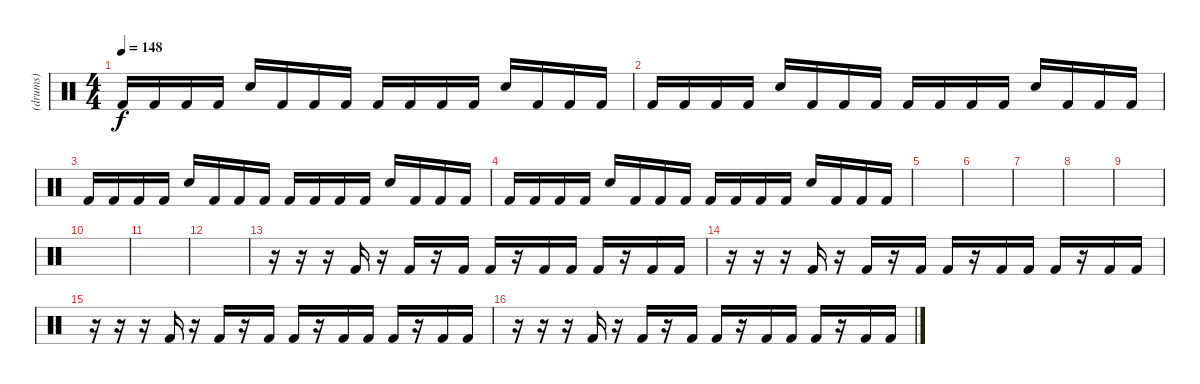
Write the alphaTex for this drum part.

\track ("(drums)" "(drums)") {instrument percussion}
\staff {score}
\articulation defaults
\ts (4 4)
\tempo 148
\clef neutral
\ks c "Kick (hit) 2".16{dy f} "Kick (hit) 2".16 "Kick (hit) 2".16 "Kick (hit) 2".16 "Snare (hit) 2".16 "Kick (hit) 2".16 "Kick (hit) 2".16 "Kick (hit) 2".16 "Kick (hit) 2".16 "Kick (hit) 2".16 "Kick (hit) 2".16 "Kick (hit) 2".16 "Snare (hit) 2".16 "Kick (hit) 2".16 "Kick (hit) 2".16 "Kick (hit) 2".16
|
"Kick (hit) 2".16 "Kick (hit) 2".16 "Kick (hit) 2".16 "Kick (hit) 2".16 "Snare (hit) 2".16 "Kick (hit) 2".16 "Kick (hit) 2".16 "Kick (hit) 2".16 "Kick (hit) 2".16 "Kick (hit) 2".16 "Kick (hit) 2".16 "Kick (hit) 2".16 "Snare (hit) 2".16 "Kick (hit) 2".16 "Kick (hit) 2".16 "Kick (hit) 2".16 |
"Kick (hit) 2".16 "Kick (hit) 2".16 "Kick (hit) 2".16 "Kick (hit) 2".16 "Snare (hit) 2".16 "Kick (hit) 2".16 "Kick (hit) 2".16 "Kick (hit) 2".16 "Kick (hit) 2".16 "Kick (hit) 2".16 "Kick (hit) 2".16 "Kick (hit) 2".16 "Snare (hit) 2".16 "Kick (hit) 2".16 "Kick (hit) 2".16 "Kick (hit) 2".16 |
"Kick (hit) 2".16 "Kick (hit) 2".16 "Kick (hit) 2".16 "Kick (hit) 2".16 "Snare (hit) 2".16 "Kick (hit) 2".16 "Kick (hit) 2".16 "Kick (hit) 2".16 "Kick (hit) 2".16 "Kick (hit) 2".16 "Kick (hit) 2".16 "Kick (hit) 2".16 "Snare (hit) 2".16 "Kick (hit) 2".16 "Kick (hit) 2".16 "Kick (hit) 2".16 |
|
|
|
|
|
|
|
|
r.16 r.16 r.16 "Kick (hit) 2".16 r.16 "Kick (hit) 2".16 r.16 "Kick (hit) 2".16 "Kick (hit) 2".16 r.16 "Kick (hit) 2".16 "Kick (hit) 2".16 "Kick (hit) 2".16 r.16 "Kick (hit) 2".16 "Kick (hit) 2".16 |
r.16 r.16 r.16 "Kick (hit) 2".16 r.16 "Kick (hit) 2".16 r.16 "Kick (hit) 2".16 "Kick (hit) 2".16 r.16 "Kick (hit) 2".16 "Kick (hit) 2".16 "Kick (hit) 2".16 r.16 "Kick (hit) 2".16 "Kick (hit) 2".16 |
r.16 r.16 r.16 "Kick (hit) 2".16 r.16 "Kick (hit) 2".16 r.16 "Kick (hit) 2".16 "Kick (hit) 2".16 r.16 "Kick (hit) 2".16 "Kick (hit) 2".16 "Kick (hit) 2".16 r.16 "Kick (hit) 2".16 "Kick (hit) 2".16 |
r.16 r.16 r.16 "Kick (hit) 2".16 r.16 "Kick (hit) 2".16 r.16 "Kick (hit) 2".16 "Kick (hit) 2".16 r.16 "Kick (hit) 2".16 "Kick (hit) 2".16 "Kick (hit) 2".16 r.16 "Kick (hit) 2".16 "Kick (hit) 2".16
